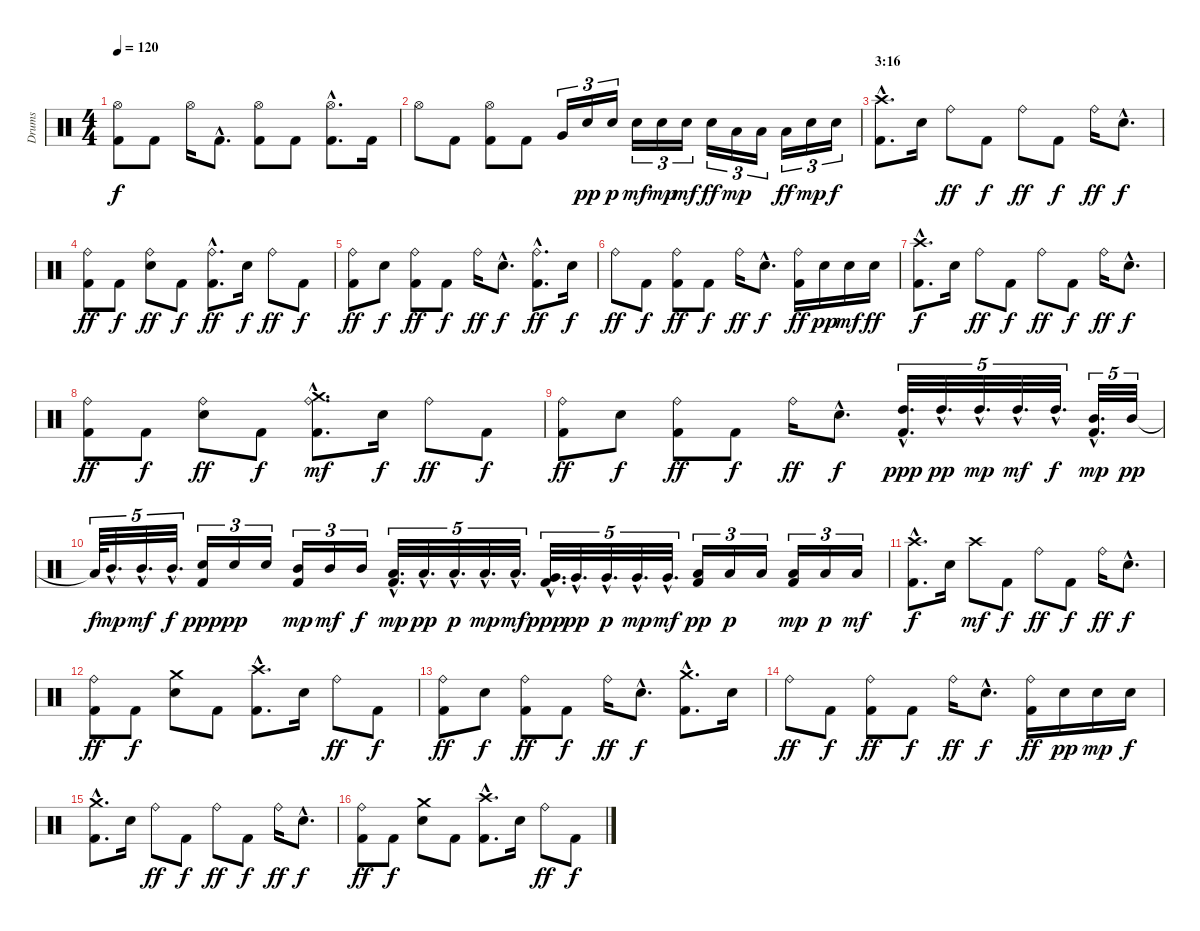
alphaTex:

\track ("Drums" "Drums") {instrument percussion}
\staff {score}
\articulation defaults
\ts (4 4)
\tempo 120
\clef neutral
\ks c
("Hi-Hat (open)" "Kick (hit) 2").8{dy f} "Kick (hit) 2".8 "Hi-Hat (open)".16 "Kick (hit) 2"{hac}.8{d} ("Hi-Hat (open)" "Kick (hit) 2").8 "Kick (hit) 2".8 ("Hi-Hat (open)"{hac} "Kick (hit) 2"{hac}).8{d} "Kick (hit) 2".16 |
"Hi-Hat (open)".8 "Kick (hit) 2".8 ("Hi-Hat (open)" "Kick (hit) 2").8 "Kick (hit) 2".8 "Very Low Tom (hit)".16{tu (3 2)} "Electric Snare (hit)".16{tu (3 2) dy pp} "Electric Snare (hit)".16{tu (3 2) dy p} "Electric Snare (hit)".16{tu (3 2) dy mf} "Electric Snare (hit)".16{tu (3 2) dy mp} "Electric Snare (hit)".16{tu (3 2) dy mf} "Electric Snare (hit)".16{tu (3 2) dy ff} "Low Tom (hit)".16{tu (3 2) dy mp} "Low Tom (hit)".16{tu (3 2)} "Low Tom (hit)".16{tu (3 2) dy ff} "Electric Snare (hit)".16{tu (3 2) dy mp} "Electric Snare (hit)".16{tu (3 2) dy f} |
\section ("" "3:16")
("Crash high (hit)"{hac} "Kick (hit) 2"{hac}).8{d} "Electric Snare (hit)".16 "Ride (bell)".8{dy ff} "Kick (hit) 2".8{dy f} "Ride (bell)".8{dy ff} "Kick (hit) 2".8{dy f} "Ride (bell)".16{dy ff} "Electric Snare (hit)"{hac}.8{d dy f} |
("Ride (bell)" "Kick (hit) 2").8{dy ff} "Kick (hit) 2".8{dy f} ("Ride (bell)" "Electric Snare (hit)").8{dy ff} "Kick (hit) 2".8{dy f} ("Ride (bell)"{hac} "Kick (hit) 2"{hac}).8{d dy ff} "Electric Snare (hit)".16{dy f} "Ride (bell)".8{dy ff} "Kick (hit) 2".8{dy f} |
("Ride (bell)" "Kick (hit) 2").8{dy ff} "Electric Snare (hit)".8{dy f} ("Ride (bell)" "Kick (hit) 2").8{dy ff} "Kick (hit) 2".8{dy f} "Ride (bell)".16{dy ff} "Electric Snare (hit)"{hac}.8{d dy f} ("Ride (bell)"{hac} "Kick (hit) 2"{hac}).8{d dy ff} "Electric Snare (hit)".16{dy f} |
"Ride (bell)".8{dy ff} "Kick (hit) 2".8{dy f} ("Ride (bell)" "Kick (hit) 2").8{dy ff} "Kick (hit) 2".8{dy f} "Ride (bell)".16{dy ff} "Electric Snare (hit)"{hac}.8{d dy f} ("Ride (bell)" "Kick (hit) 2").16{dy ff} "Electric Snare (hit)".16{dy pp} "Electric Snare (hit)".16{dy mf} "Electric Snare (hit)".16{dy ff} |
("Crash high (hit)"{hac} "Kick (hit) 2"{hac}).8{d dy f} "Electric Snare (hit)".16 "Ride (bell)".8{dy ff} "Kick (hit) 2".8{dy f} "Ride (bell)".8{dy ff} "Kick (hit) 2".8{dy f} "Ride (bell)".16{dy ff} "Electric Snare (hit)"{hac}.8{d dy f} |
("Ride (bell)" "Kick (hit) 2").8{dy ff} "Kick (hit) 2".8{dy f} ("Ride (bell)" "Electric Snare (hit)").8{dy ff} "Kick (hit) 2".8{dy f} ("Ride (bell)"{hac} "Crash medium (hit)"{hac} "Kick (hit) 2"{hac}).8{d dy mf} "Electric Snare (hit)".16{dy f} "Ride (bell)".8{dy ff} "Kick (hit) 2".8{dy f} |
("Ride (bell)" "Kick (hit) 2").8{dy ff} "Electric Snare (hit)".8{dy f} ("Ride (bell)" "Kick (hit) 2").8{dy ff} "Kick (hit) 2".8{dy f} "Ride (bell)".16{dy ff} "Electric Snare (hit)"{hac}.8{d dy f} ("High Tom (hit)"{hac} "Kick (hit) 2"{hac}).32{d tu (5 4) dy ppp} "High Tom (hit)"{hac}.32{d tu (5 4) dy pp} "High Tom (hit)"{hac}.32{d tu (5 4) dy mp} "High Tom (hit)"{hac}.32{d tu (5 4) dy mf} "High Tom (hit)"{hac}.32{d tu (5 4) dy f} ("Mid Tom (hit)"{hac} "Kick (hit) 2"{hac}).32{d tu (5 4) dy mp} "Mid Tom (hit)".32{tu (5 4) dy pp} |
"Low Tom (hit)"{t}.64{tu (5 4) dy f} "Mid Tom (hit)"{hac}.32{d tu (5 4) dy mp} "Mid Tom (hit)"{hac}.32{d tu (5 4) dy mf} "Mid Tom (hit)"{hac}.32{d tu (5 4) dy f} ("Electric Snare (hit)" "Kick (hit) 2").16{tu (3 2) dy ppp} "Electric Snare (hit)".16{tu (3 2) dy pp} "Electric Snare (hit)".16{tu (3 2)} ("Mid Tom (hit)" "Kick (hit) 2").16{tu (3 2) dy mp} "Mid Tom (hit)".16{tu (3 2) dy mf} "Mid Tom (hit)".16{tu (3 2) dy f} ("Low Tom (hit)"{hac} "Kick (hit) 2"{hac}).32{d tu (5 4) dy mp} "Low Tom (hit)"{hac}.32{d tu (5 4) dy pp} "Low Tom (hit)"{hac}.32{d tu (5 4) dy p} "Low Tom (hit)"{hac}.32{d tu (5 4) dy mp} "Low Tom (hit)"{hac}.32{d tu (5 4) dy mf} ("Very Low Tom (hit)"{hac} "Kick (hit) 2"{hac}).32{d tu (5 4) dy ppp} "Very Low Tom (hit)"{hac}.32{d tu (5 4) dy pp} "Very Low Tom (hit)"{hac}.32{d tu (5 4) dy p} "Very Low Tom (hit)"{hac}.32{d tu (5 4) dy mp} "Very Low Tom (hit)"{hac}.32{d tu (5 4) dy mf} ("Low Floor Tom (hit)" "Kick (hit) 2").16{tu (3 2) dy pp} "Low Floor Tom (hit)".16{tu (3 2) dy p} "Low Floor Tom (hit)".16{tu (3 2)} ("Low Floor Tom (hit)" "Kick (hit) 2").16{tu (3 2) dy mp} "Low Floor Tom (hit)".16{tu (3 2) dy p} "Low Floor Tom (hit)".16{tu (3 2) dy mf} |
("Crash high (hit)"{hac} "Kick (hit) 2"{hac}).8{d dy f} "Electric Snare (hit)".16 "Crash high (hit)".8{dy mf} "Kick (hit) 2".8{dy f} "Ride (bell)".8{dy ff} "Kick (hit) 2".8{dy f} "Ride (bell)".16{dy ff} "Electric Snare (hit)"{hac}.8{d dy f} |
("Ride (bell)" "Kick (hit) 2").8{dy ff} "Kick (hit) 2".8{dy f} ("Crash medium (hit)" "Electric Snare (hit)").8 "Kick (hit) 2".8 ("Crash high (hit)"{hac} "Kick (hit) 2"{hac}).8{d} "Electric Snare (hit)".16 "Ride (bell)".8{dy ff} "Kick (hit) 2".8{dy f} |
("Ride (bell)" "Kick (hit) 2").8{dy ff} "Electric Snare (hit)".8{dy f} ("Ride (bell)" "Kick (hit) 2").8{dy ff} "Kick (hit) 2".8{dy f} "Ride (bell)".16{dy ff} "Electric Snare (hit)"{hac}.8{d dy f} ("Crash medium (hit)"{hac} "Kick (hit) 2"{hac}).8{d} "Electric Snare (hit)".16 |
"Ride (bell)".8{dy ff} "Kick (hit) 2".8{dy f} ("Ride (bell)" "Kick (hit) 2").8{dy ff} "Kick (hit) 2".8{dy f} "Ride (bell)".16{dy ff} "Electric Snare (hit)"{hac}.8{d dy f} ("Ride (bell)" "Kick (hit) 2").16{dy ff} "Electric Snare (hit)".16{dy pp} "Electric Snare (hit)".16{dy mp} "Electric Snare (hit)".16{dy f} |
("Crash medium (hit)"{hac} "Kick (hit) 2"{hac}).8{d} "Electric Snare (hit)".16 "Ride (bell)".8{dy ff} "Kick (hit) 2".8{dy f} "Ride (bell)".8{dy ff} "Kick (hit) 2".8{dy f} "Ride (bell)".16{dy ff} "Electric Snare (hit)"{hac}.8{d dy f} |
("Ride (bell)" "Kick (hit) 2").8{dy ff} "Kick (hit) 2".8{dy f} ("Crash medium (hit)" "Electric Snare (hit)").8 "Kick (hit) 2".8 ("Crash high (hit)"{hac} "Kick (hit) 2"{hac}).8{d} "Electric Snare (hit)".16 "Ride (bell)".8{dy ff} "Kick (hit) 2".8{dy f}
